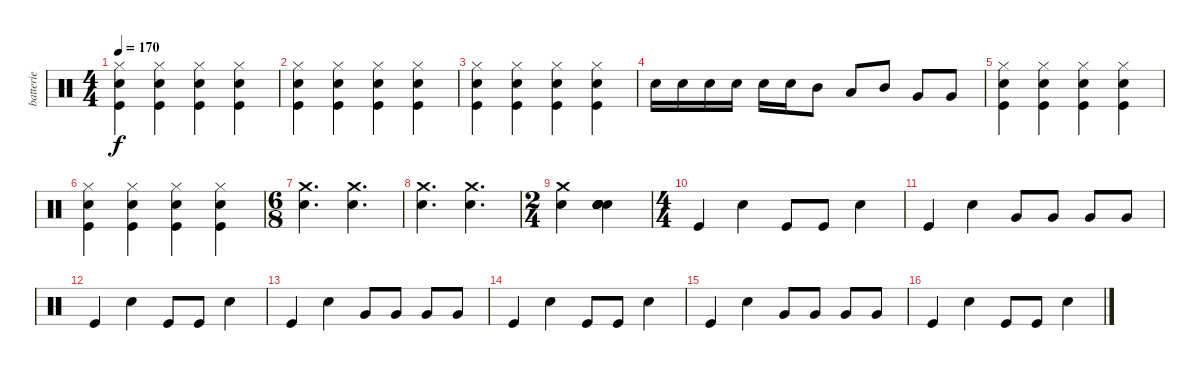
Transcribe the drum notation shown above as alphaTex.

\track ("batterie " "batterie ") {instrument percussion}
\staff {score}
\articulation defaults
\ts (4 4)
\tempo 170
\clef neutral
\ks c
("Hi-Hat (closed)" "Snare (hit) 2" "Kick (hit)").4{dy f} ("Hi-Hat (closed)" "Snare (hit) 2" "Kick (hit)").4 ("Hi-Hat (closed)" "Snare (hit) 2" "Kick (hit)").4 ("Hi-Hat (closed)" "Snare (hit) 2" "Kick (hit)").4 |
("Hi-Hat (closed)" "Snare (hit) 2" "Kick (hit)").4 ("Hi-Hat (closed)" "Snare (hit) 2" "Kick (hit)").4 ("Hi-Hat (closed)" "Snare (hit) 2" "Kick (hit)").4 ("Hi-Hat (closed)" "Snare (hit) 2" "Kick (hit)").4 |
("Hi-Hat (closed)" "Snare (hit) 2" "Kick (hit)").4 ("Hi-Hat (closed)" "Snare (hit) 2" "Kick (hit)").4 ("Hi-Hat (closed)" "Snare (hit) 2" "Kick (hit)").4 ("Hi-Hat (closed)" "Snare (hit) 2" "Kick (hit)").4 |
"Snare (hit) 2".16 "Snare (hit) 2".16 "Snare (hit) 2".16 "Snare (hit) 2".16 "Snare (hit) 2".16 "Snare (hit) 2".16 "Mid Tom (hit)".8 "Low Tom (hit)".8 "Mid Tom (hit)".8 "Very Low Tom (hit)".8 "Very Low Tom (hit)".8 |
("Hi-Hat (closed)" "Snare (hit) 2" "Kick (hit)").4 ("Hi-Hat (closed)" "Snare (hit) 2" "Kick (hit)").4 ("Hi-Hat (closed)" "Snare (hit) 2" "Kick (hit)").4 ("Hi-Hat (closed)" "Snare (hit) 2" "Kick (hit)").4 |
("Hi-Hat (closed)" "Snare (hit) 2" "Kick (hit)").4 ("Hi-Hat (closed)" "Snare (hit) 2" "Kick (hit)").4 ("Hi-Hat (closed)" "Snare (hit) 2" "Kick (hit)").4 ("Hi-Hat (closed)" "Snare (hit) 2" "Kick (hit)").4 |
\ts (6 8)
("Crash medium (hit)" "Snare (hit) 2").4{d} ("Crash medium (hit)" "Snare (hit) 2").4{d} |
("Crash medium (hit)" "Snare (hit) 2").4{d} ("Crash medium (hit)" "Snare (hit) 2").4{d} |
\ts (2 4)
("Crash medium (hit)" "Snare (hit) 2").4 ("Hand Clap (hit)" "Hand Clap (hit)" "Hand Clap (hit)" "Snare (hit) 2" "Hand Clap (hit)" "Hand Clap (hit)").4 |
\ts (4 4)
"Kick (hit)".4 "Snare (hit) 2".4 "Kick (hit)".8 "Kick (hit)".8 "Snare (hit) 2".4 |
"Kick (hit)".4 "Snare (hit) 2".4 "Very Low Tom (hit)".8 "Very Low Tom (hit)".8 "Very Low Tom (hit)".8 "Very Low Tom (hit)".8 |
"Kick (hit)".4 "Snare (hit) 2".4 "Kick (hit)".8 "Kick (hit)".8 "Snare (hit) 2".4 |
"Kick (hit)".4 "Snare (hit) 2".4 "Very Low Tom (hit)".8 "Very Low Tom (hit)".8 "Very Low Tom (hit)".8 "Very Low Tom (hit)".8 |
"Kick (hit)".4 "Snare (hit) 2".4 "Kick (hit)".8 "Kick (hit)".8 "Snare (hit) 2".4 |
"Kick (hit)".4 "Snare (hit) 2".4 "Very Low Tom (hit)".8 "Very Low Tom (hit)".8 "Very Low Tom (hit)".8 "Very Low Tom (hit)".8 |
"Kick (hit)".4 "Snare (hit) 2".4 "Kick (hit)".8 "Kick (hit)".8 "Snare (hit) 2".4
